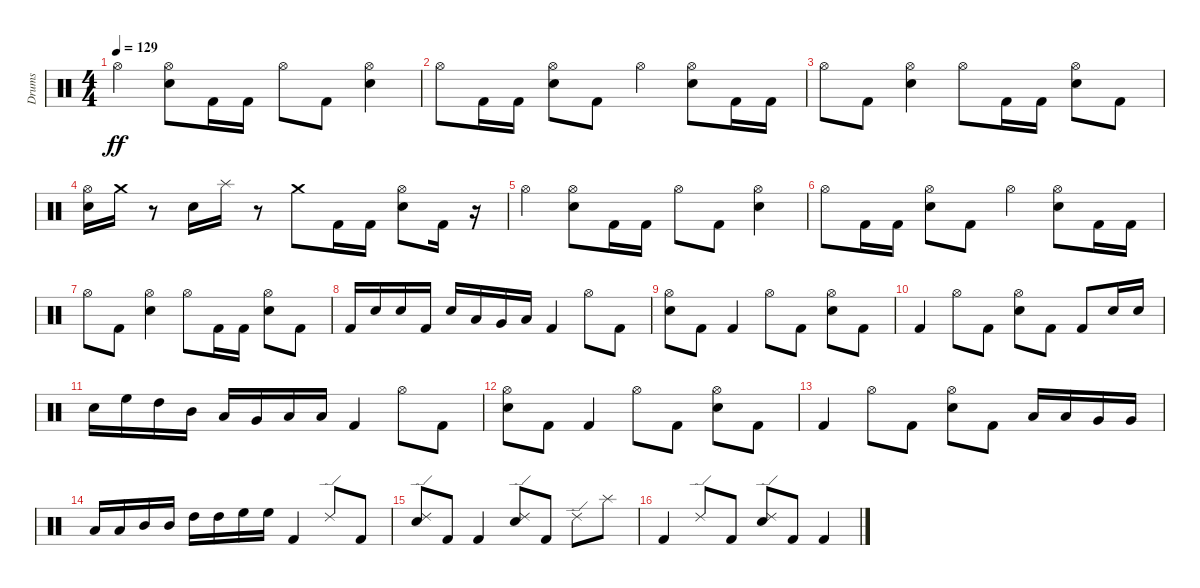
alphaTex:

\track ("Drums" "Drums") {instrument percussion}
\staff {score}
\articulation defaults
\ts (4 4)
\tempo 129
\clef neutral
\ks c "Hi-Hat (open)".4{dy ff}
("Electric Snare (hit)" "Hi-Hat (open)").8 "Kick (hit) 2".16 "Kick (hit) 2".16 "Hi-Hat (open)".8 "Kick (hit) 2".8 ("Electric Snare (hit)" "Hi-Hat (open)").4 |
"Hi-Hat (open)".8 "Kick (hit) 2".16 "Kick (hit) 2".16 ("Electric Snare (hit)" "Hi-Hat (open)").8 "Kick (hit) 2".8 "Hi-Hat (open)".4 ("Electric Snare (hit)" "Hi-Hat (open)").8 "Kick (hit) 2".16 "Kick (hit) 2".16 |
"Hi-Hat (open)".8 "Kick (hit) 2".8 ("Electric Snare (hit)" "Hi-Hat (open)").4 "Hi-Hat (open)".8 "Kick (hit) 2".16 "Kick (hit) 2".16 ("Electric Snare (hit)" "Hi-Hat (open)").8 "Kick (hit) 2".8 |
("Electric Snare (hit)" "Hi-Hat (open)").16 "Crash medium (hit)".16 r.8 "Electric Snare (hit)".16 "Splash (hit)".16 r.8 "Crash medium (hit)".8 "Kick (hit) 2".16 "Kick (hit) 2".16 ("Electric Snare (hit)" "Hi-Hat (open)").8 "Kick (hit) 2".16 r.16 |
"Hi-Hat (open)".4 ("Electric Snare (hit)" "Hi-Hat (open)").8 "Kick (hit) 2".16 "Kick (hit) 2".16 "Hi-Hat (open)".8 "Kick (hit) 2".8 ("Electric Snare (hit)" "Hi-Hat (open)").4 |
"Hi-Hat (open)".8 "Kick (hit) 2".16 "Kick (hit) 2".16 ("Electric Snare (hit)" "Hi-Hat (open)").8 "Kick (hit) 2".8 "Hi-Hat (open)".4 ("Electric Snare (hit)" "Hi-Hat (open)").8 "Kick (hit) 2".16 "Kick (hit) 2".16 |
"Hi-Hat (open)".8 "Kick (hit) 2".8 ("Electric Snare (hit)" "Hi-Hat (open)").4 "Hi-Hat (open)".8 "Kick (hit) 2".16 "Kick (hit) 2".16 ("Electric Snare (hit)" "Hi-Hat (open)").8 "Kick (hit) 2".8 |
"Kick (hit) 2".16 "Electric Snare (hit)".16 "Electric Snare (hit)".16 "Kick (hit) 2".16 "Electric Snare (hit)".16 "Low Tom (hit)".16 "Very Low Tom (hit)".16 "Low Floor Tom (hit)".16 "Kick (hit) 2".4 "Hi-Hat (open)".8 "Kick (hit) 2".8 |
("Electric Snare (hit)" "Hi-Hat (open)").8 "Kick (hit) 2".8 "Kick (hit) 2".4 "Hi-Hat (open)".8 "Kick (hit) 2".8 ("Electric Snare (hit)" "Hi-Hat (open)").8 "Kick (hit) 2".8 |
"Kick (hit) 2".4 "Hi-Hat (open)".8 "Kick (hit) 2".8 ("Electric Snare (hit)" "Hi-Hat (open)").8 "Kick (hit) 2".8 "Kick (hit) 2".8 "Electric Snare (hit)".16 "Electric Snare (hit)".16 |
"Electric Snare (hit)".16 "High Floor Tom (hit)".16 "High Tom (hit)".16 "Mid Tom (hit)".16 "Low Tom (hit)".16 "Very Low Tom (hit)".16 "Low Floor Tom (hit)".16 "Low Floor Tom (hit)".16 "Kick (hit) 2".4 "Hi-Hat (open)".8 "Kick (hit) 2".8 |
("Electric Snare (hit)" "Hi-Hat (open)").8 "Kick (hit) 2".8 "Kick (hit) 2".4 "Hi-Hat (open)".8 "Kick (hit) 2".8 ("Electric Snare (hit)" "Hi-Hat (open)").8 "Kick (hit) 2".8 |
"Kick (hit) 2".4 "Hi-Hat (open)".8 "Kick (hit) 2".8 ("Electric Snare (hit)" "Hi-Hat (open)").8 "Kick (hit) 2".8 "Low Floor Tom (hit)".16 "Low Floor Tom (hit)".16 "Very Low Tom (hit)".16 "Very Low Tom (hit)".16 |
"Low Tom (hit)".16 "Low Tom (hit)".16 "Mid Tom (hit)".16 "Mid Tom (hit)".16 "High Tom (hit)".16 "High Tom (hit)".16 "High Floor Tom (hit)".16 "High Floor Tom (hit)".16 "Kick (hit) 2".4 "Ride (edge) 2".8 "Kick (hit) 2".8 |
("Electric Snare (hit)" "Ride (edge) 2").8 "Kick (hit) 2".8 "Kick (hit) 2".4 ("Electric Snare (hit)" "Ride (edge) 2").8 "Kick (hit) 2".8 "Ride (edge) 2".8 "Splash (hit)".8 |
"Kick (hit) 2".4 "Ride (edge) 2".8 "Kick (hit) 2".8 ("Electric Snare (hit)" "Ride (edge) 2").8 "Kick (hit) 2".8 "Kick (hit) 2".4
